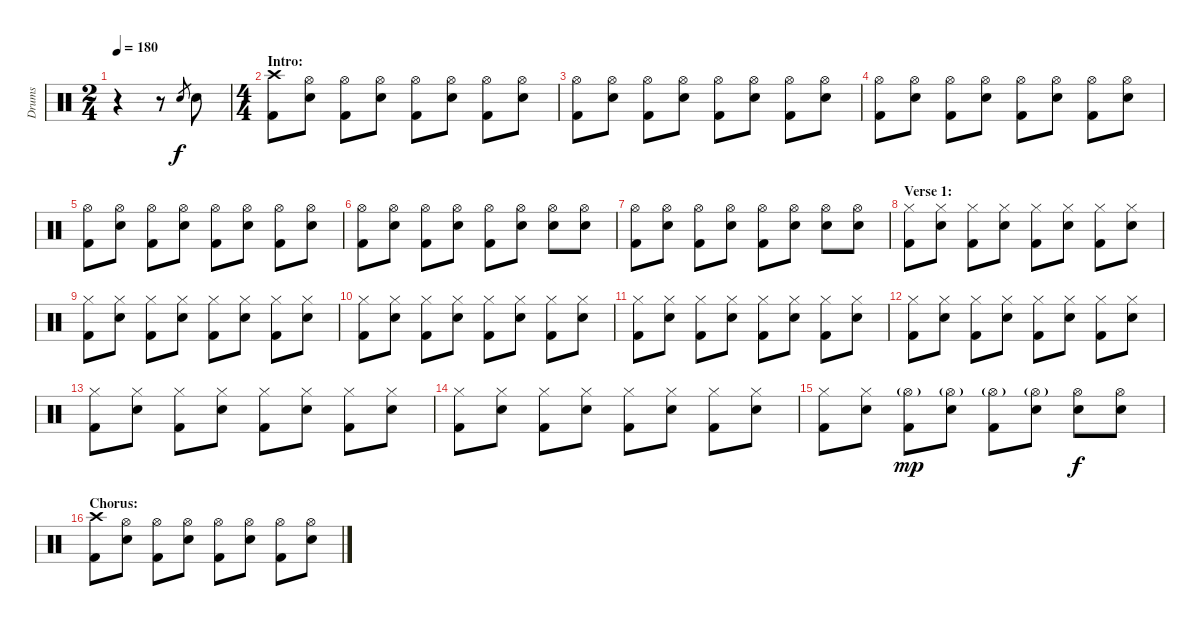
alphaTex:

\track ("Drums" "Drums") {instrument percussion}
\staff {score}
\articulation defaults
\ts (2 4)
\tempo 180
\clef neutral
\ks c
r.4{dy f} r.8 "Electric Snare (hit)".8{gr} "Electric Snare (hit)".8 |
\ts (4 4)
\section ("" "Intro:")
("Crash high (hit)" "Kick (hit) 2").8 ("Hi-Hat (open)" "Electric Snare (hit)").8 ("Hi-Hat (open)" "Kick (hit) 2").8 ("Hi-Hat (open)" "Electric Snare (hit)").8 ("Hi-Hat (open)" "Kick (hit) 2").8 ("Hi-Hat (open)" "Electric Snare (hit)").8 ("Hi-Hat (open)" "Kick (hit) 2").8 ("Hi-Hat (open)" "Electric Snare (hit)").8 |
("Hi-Hat (open)" "Kick (hit) 2").8 ("Hi-Hat (open)" "Electric Snare (hit)").8 ("Hi-Hat (open)" "Kick (hit) 2").8 ("Hi-Hat (open)" "Electric Snare (hit)").8 ("Hi-Hat (open)" "Kick (hit) 2").8 ("Hi-Hat (open)" "Electric Snare (hit)").8 ("Hi-Hat (open)" "Kick (hit) 2").8 ("Hi-Hat (open)" "Electric Snare (hit)").8 |
("Hi-Hat (open)" "Kick (hit) 2").8 ("Hi-Hat (open)" "Electric Snare (hit)").8 ("Hi-Hat (open)" "Kick (hit) 2").8 ("Hi-Hat (open)" "Electric Snare (hit)").8 ("Hi-Hat (open)" "Kick (hit) 2").8 ("Hi-Hat (open)" "Electric Snare (hit)").8 ("Hi-Hat (open)" "Kick (hit) 2").8 ("Hi-Hat (open)" "Electric Snare (hit)").8 |
("Hi-Hat (open)" "Kick (hit) 2").8 ("Hi-Hat (open)" "Electric Snare (hit)").8 ("Hi-Hat (open)" "Kick (hit) 2").8 ("Hi-Hat (open)" "Electric Snare (hit)").8 ("Hi-Hat (open)" "Kick (hit) 2").8 ("Hi-Hat (open)" "Electric Snare (hit)").8 ("Hi-Hat (open)" "Kick (hit) 2").8 ("Hi-Hat (open)" "Electric Snare (hit)").8 |
("Hi-Hat (open)" "Kick (hit) 2").8 ("Hi-Hat (open)" "Electric Snare (hit)").8 ("Hi-Hat (open)" "Kick (hit) 2").8 ("Hi-Hat (open)" "Electric Snare (hit)").8 ("Hi-Hat (open)" "Kick (hit) 2").8 ("Hi-Hat (open)" "Electric Snare (hit)").8 ("Hi-Hat (open)" "Electric Snare (hit)").8 ("Hi-Hat (open)" "Electric Snare (hit)").8 |
("Hi-Hat (open)" "Kick (hit) 2").8 ("Hi-Hat (open)" "Electric Snare (hit)").8 ("Hi-Hat (open)" "Kick (hit) 2").8 ("Hi-Hat (open)" "Electric Snare (hit)").8 ("Hi-Hat (open)" "Kick (hit) 2").8 ("Hi-Hat (open)" "Electric Snare (hit)").8 ("Hi-Hat (open)" "Electric Snare (hit)").8 ("Hi-Hat (open)" "Electric Snare (hit)").8 |
\section ("" "Verse 1:")
("Hi-Hat (closed)" "Kick (hit) 2").8 ("Hi-Hat (closed)" "Electric Snare (hit)").8 ("Hi-Hat (closed)" "Kick (hit) 2").8 ("Hi-Hat (closed)" "Electric Snare (hit)").8 ("Hi-Hat (closed)" "Kick (hit) 2").8 ("Hi-Hat (closed)" "Electric Snare (hit)").8 ("Hi-Hat (closed)" "Kick (hit) 2").8 ("Hi-Hat (closed)" "Electric Snare (hit)").8 |
("Hi-Hat (closed)" "Kick (hit) 2").8 ("Hi-Hat (closed)" "Electric Snare (hit)").8 ("Hi-Hat (closed)" "Kick (hit) 2").8 ("Hi-Hat (closed)" "Electric Snare (hit)").8 ("Hi-Hat (closed)" "Kick (hit) 2").8 ("Hi-Hat (closed)" "Electric Snare (hit)").8 ("Hi-Hat (closed)" "Kick (hit) 2").8 ("Hi-Hat (closed)" "Electric Snare (hit)").8 |
("Hi-Hat (closed)" "Kick (hit) 2").8 ("Hi-Hat (closed)" "Electric Snare (hit)").8 ("Hi-Hat (closed)" "Kick (hit) 2").8 ("Hi-Hat (closed)" "Electric Snare (hit)").8 ("Hi-Hat (closed)" "Kick (hit) 2").8 ("Hi-Hat (closed)" "Electric Snare (hit)").8 ("Hi-Hat (closed)" "Kick (hit) 2").8 ("Hi-Hat (closed)" "Electric Snare (hit)").8 |
("Hi-Hat (closed)" "Kick (hit) 2").8 ("Hi-Hat (closed)" "Electric Snare (hit)").8 ("Hi-Hat (closed)" "Kick (hit) 2").8 ("Hi-Hat (closed)" "Electric Snare (hit)").8 ("Hi-Hat (closed)" "Kick (hit) 2").8 ("Hi-Hat (closed)" "Electric Snare (hit)").8 ("Hi-Hat (closed)" "Kick (hit) 2").8 ("Hi-Hat (closed)" "Electric Snare (hit)").8 |
("Hi-Hat (closed)" "Kick (hit) 2").8 ("Hi-Hat (closed)" "Electric Snare (hit)").8 ("Hi-Hat (closed)" "Kick (hit) 2").8 ("Hi-Hat (closed)" "Electric Snare (hit)").8 ("Hi-Hat (closed)" "Kick (hit) 2").8 ("Hi-Hat (closed)" "Electric Snare (hit)").8 ("Hi-Hat (closed)" "Kick (hit) 2").8 ("Hi-Hat (closed)" "Electric Snare (hit)").8 |
("Hi-Hat (closed)" "Kick (hit) 2").8 ("Hi-Hat (closed)" "Electric Snare (hit)").8 ("Hi-Hat (closed)" "Kick (hit) 2").8 ("Hi-Hat (closed)" "Electric Snare (hit)").8 ("Hi-Hat (closed)" "Kick (hit) 2").8 ("Hi-Hat (closed)" "Electric Snare (hit)").8 ("Hi-Hat (closed)" "Kick (hit) 2").8 ("Hi-Hat (closed)" "Electric Snare (hit)").8 |
("Hi-Hat (closed)" "Kick (hit) 2").8 ("Hi-Hat (closed)" "Electric Snare (hit)").8 ("Hi-Hat (closed)" "Kick (hit) 2").8 ("Hi-Hat (closed)" "Electric Snare (hit)").8 ("Hi-Hat (closed)" "Kick (hit) 2").8 ("Hi-Hat (closed)" "Electric Snare (hit)").8 ("Hi-Hat (closed)" "Kick (hit) 2").8 ("Hi-Hat (closed)" "Electric Snare (hit)").8 |
("Hi-Hat (closed)" "Kick (hit) 2").8 ("Hi-Hat (closed)" "Electric Snare (hit)").8 ("Hi-Hat (open)"{g} "Kick (hit) 2").8{dy mp} ("Hi-Hat (open)"{g} "Electric Snare (hit)").8 ("Hi-Hat (open)"{g} "Kick (hit) 2").8 ("Hi-Hat (open)"{g} "Electric Snare (hit)").8 ("Hi-Hat (open)" "Electric Snare (hit)").8{dy f} ("Hi-Hat (open)" "Electric Snare (hit)").8 |
\section ("" "Chorus:")
("Crash high (hit)" "Kick (hit) 2").8 ("Hi-Hat (open)" "Electric Snare (hit)").8 ("Hi-Hat (open)" "Kick (hit) 2").8 ("Hi-Hat (open)" "Electric Snare (hit)").8 ("Hi-Hat (open)" "Kick (hit) 2").8 ("Hi-Hat (open)" "Electric Snare (hit)").8 ("Hi-Hat (open)" "Kick (hit) 2").8 ("Hi-Hat (open)" "Electric Snare (hit)").8
